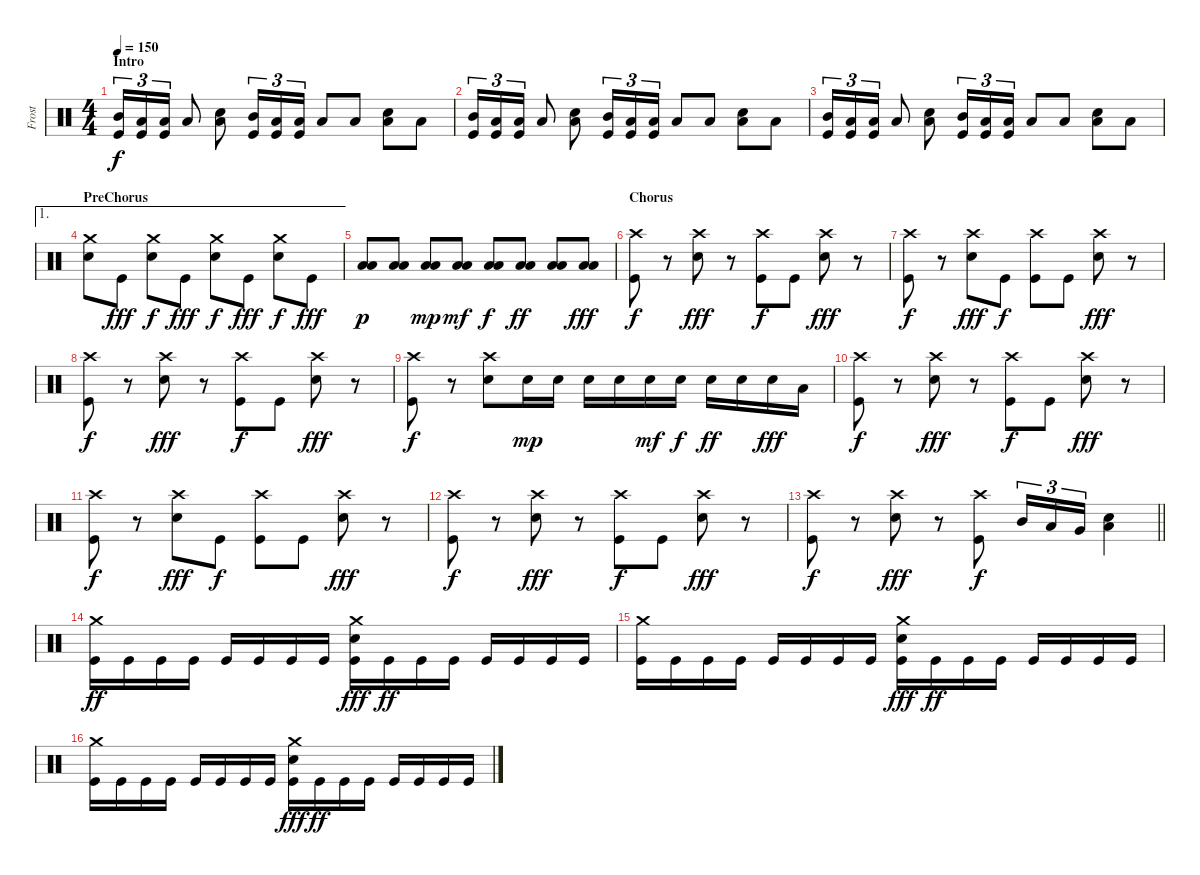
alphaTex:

\track ("Frost" "Frost") {instrument percussion}
\staff {score}
\articulation defaults
\ts (4 4)
\section ("" "Intro")
\tempo 150
\clef neutral
\ks c
("Mid Tom (hit)" "Kick (hit)").16{tu (3 2) dy f} ("Low Tom (hit)" "Kick (hit)").16{tu (3 2)} ("Low Tom (hit)" "Kick (hit)").16{tu (3 2)} "Low Floor Tom (hit)".8 ("Low Floor Tom (hit)" "Electric Snare (hit)").8 ("Mid Tom (hit)" "Kick (hit)").16{tu (3 2)} ("Low Tom (hit)" "Kick (hit)").16{tu (3 2)} ("Low Tom (hit)" "Kick (hit)").16{tu (3 2)} "Low Floor Tom (hit)".8 "Low Floor Tom (hit)".8 ("Low Floor Tom (hit)" "Electric Snare (hit)").8 "Low Floor Tom (hit)".8 |
("Mid Tom (hit)" "Kick (hit)").16{tu (3 2)} ("Low Tom (hit)" "Kick (hit)").16{tu (3 2)} ("Low Tom (hit)" "Kick (hit)").16{tu (3 2)} "Low Floor Tom (hit)".8 ("Low Floor Tom (hit)" "Electric Snare (hit)").8 ("Mid Tom (hit)" "Kick (hit)").16{tu (3 2)} ("Low Tom (hit)" "Kick (hit)").16{tu (3 2)} ("Low Tom (hit)" "Kick (hit)").16{tu (3 2)} "Low Floor Tom (hit)".8 "Low Floor Tom (hit)".8 ("Low Floor Tom (hit)" "Electric Snare (hit)").8 "Low Floor Tom (hit)".8 |
("Mid Tom (hit)" "Kick (hit)").16{tu (3 2)} ("Low Tom (hit)" "Kick (hit)").16{tu (3 2)} ("Low Tom (hit)" "Kick (hit)").16{tu (3 2)} "Low Floor Tom (hit)".8 ("Low Floor Tom (hit)" "Electric Snare (hit)").8 ("Mid Tom (hit)" "Kick (hit)").16{tu (3 2)} ("Low Tom (hit)" "Kick (hit)").16{tu (3 2)} ("Low Tom (hit)" "Kick (hit)").16{tu (3 2)} "Low Floor Tom (hit)".8 "Low Floor Tom (hit)".8 ("Low Floor Tom (hit)" "Electric Snare (hit)").8 "Low Floor Tom (hit)".8 |
\ae 1
\section ("" "PreChorus")
("Crash medium (hit)" "Electric Snare (hit)").8 "Kick (hit)".8{dy fff} ("Crash medium (hit)" "Electric Snare (hit)").8{dy f} "Kick (hit)".8{dy fff} ("Crash medium (hit)" "Electric Snare (hit)").8{dy f} "Kick (hit)".8{dy fff} ("Crash medium (hit)" "Electric Snare (hit)").8{dy f} "Kick (hit)".8{dy fff} |
("Low Tom (hit)" "Low Floor Tom (hit)").8{dy p} ("Low Tom (hit)" "Low Floor Tom (hit)").8 ("Low Tom (hit)" "Low Floor Tom (hit)").8{dy mp} ("Low Tom (hit)" "Low Floor Tom (hit)").8{dy mf} ("Low Tom (hit)" "Low Floor Tom (hit)").8{dy f} ("Low Tom (hit)" "Low Floor Tom (hit)").8{dy ff} ("Low Tom (hit)" "Low Floor Tom (hit)").8 ("Low Tom (hit)" "Low Floor Tom (hit)").8{dy fff} |
\section ("" "Chorus")
("Kick (hit)" "Crash high (hit)").8{dy f} r.8 ("Electric Snare (hit)" "Crash high (hit)").8{dy fff} r.8 ("Kick (hit)" "Crash high (hit)").8{dy f} "Kick (hit)".8 ("Electric Snare (hit)" "Crash high (hit)").8{dy fff} r.8 |
("Kick (hit)" "Crash high (hit)").8{dy f} r.8 ("Electric Snare (hit)" "Crash high (hit)").8{dy fff} "Kick (hit)".8{dy f} ("Kick (hit)" "Crash high (hit)").8 "Kick (hit)".8 ("Electric Snare (hit)" "Crash high (hit)").8{dy fff} r.8 |
("Kick (hit)" "Crash high (hit)").8{dy f} r.8 ("Electric Snare (hit)" "Crash high (hit)").8{dy fff} r.8 ("Kick (hit)" "Crash high (hit)").8{dy f} "Kick (hit)".8 ("Electric Snare (hit)" "Crash high (hit)").8{dy fff} r.8 |
("Kick (hit)" "Crash high (hit)").8{dy f} r.8 ("Electric Snare (hit)" "Crash high (hit)").8 "Electric Snare (hit)".16{dy mp} "Electric Snare (hit)".16 "Electric Snare (hit)".16 "Electric Snare (hit)".16 "Electric Snare (hit)".16{dy mf} "Electric Snare (hit)".16{dy f} "Electric Snare (hit)".16{dy ff} "Electric Snare (hit)".16 "Electric Snare (hit)".16{dy fff} "Low Tom (hit)".16 |
("Kick (hit)" "Crash high (hit)").8{dy f} r.8 ("Electric Snare (hit)" "Crash high (hit)").8{dy fff} r.8 ("Kick (hit)" "Crash high (hit)").8{dy f} "Kick (hit)".8 ("Electric Snare (hit)" "Crash high (hit)").8{dy fff} r.8 |
("Kick (hit)" "Crash high (hit)").8{dy f} r.8 ("Electric Snare (hit)" "Crash high (hit)").8{dy fff} "Kick (hit)".8{dy f} ("Kick (hit)" "Crash high (hit)").8 "Kick (hit)".8 ("Electric Snare (hit)" "Crash high (hit)").8{dy fff} r.8 |
("Kick (hit)" "Crash high (hit)").8{dy f} r.8 ("Electric Snare (hit)" "Crash high (hit)").8{dy fff} r.8 ("Kick (hit)" "Crash high (hit)").8{dy f} "Kick (hit)".8 ("Electric Snare (hit)" "Crash high (hit)").8{dy fff} r.8 |
\barLineRight lightlight
("Kick (hit)" "Crash high (hit)").8{dy f} r.8 ("Electric Snare (hit)" "Crash high (hit)").8{dy fff} r.8 ("Kick (hit)" "Crash high (hit)").8{dy f} "Mid Tom (hit)".16{tu (3 2)} "Low Tom (hit)".16{tu (3 2)} "Very Low Tom (hit)".16{tu (3 2)} ("Low Floor Tom (hit)" "Electric Snare (hit)").4 |
("Kick (hit)" "Crash medium (hit)").16{dy ff} "Kick (hit)".16 "Kick (hit)".16 "Kick (hit)".16 "Kick (hit)".16 "Kick (hit)".16 "Kick (hit)".16 "Kick (hit)".16 ("Kick (hit)" "Electric Snare (hit)" "Crash medium (hit)").16{dy fff} "Kick (hit)".16{dy ff} "Kick (hit)".16 "Kick (hit)".16 "Kick (hit)".16 "Kick (hit)".16 "Kick (hit)".16 "Kick (hit)".16 |
("Kick (hit)" "Crash medium (hit)").16 "Kick (hit)".16 "Kick (hit)".16 "Kick (hit)".16 "Kick (hit)".16 "Kick (hit)".16 "Kick (hit)".16 "Kick (hit)".16 ("Kick (hit)" "Electric Snare (hit)" "Crash medium (hit)").16{dy fff} "Kick (hit)".16{dy ff} "Kick (hit)".16 "Kick (hit)".16 "Kick (hit)".16 "Kick (hit)".16 "Kick (hit)".16 "Kick (hit)".16 |
("Kick (hit)" "Crash medium (hit)").16 "Kick (hit)".16 "Kick (hit)".16 "Kick (hit)".16 "Kick (hit)".16 "Kick (hit)".16 "Kick (hit)".16 "Kick (hit)".16 ("Kick (hit)" "Electric Snare (hit)" "Crash medium (hit)").16{dy fff} "Kick (hit)".16{dy ff} "Kick (hit)".16 "Kick (hit)".16 "Kick (hit)".16 "Kick (hit)".16 "Kick (hit)".16 "Kick (hit)".16
